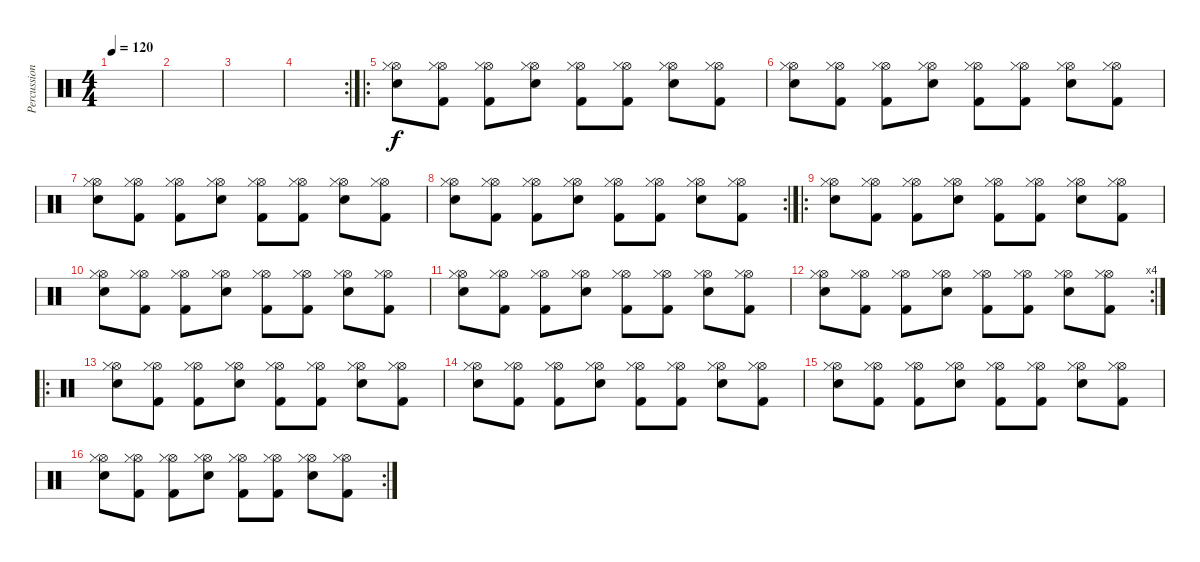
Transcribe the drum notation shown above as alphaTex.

\track ("Percussions" "Percussion") {instrument percussion}
\staff {score}
\articulation defaults
\ts (4 4)
\tempo 120
\clef neutral
\ks c
|
|
|
\rc 2
|
\ro
("Electric Snare (hit)" "Hi-Hat (open)" "Hi-Hat (closed)").8 ("Kick (hit) 2" "Hi-Hat (open)" "Hi-Hat (closed)").8 ("Kick (hit) 2" "Hi-Hat (open)" "Hi-Hat (closed)").8 ("Electric Snare (hit)" "Hi-Hat (open)" "Hi-Hat (closed)").8 ("Kick (hit) 2" "Hi-Hat (open)" "Hi-Hat (closed)").8 ("Kick (hit) 2" "Hi-Hat (open)" "Hi-Hat (closed)").8 ("Electric Snare (hit)" "Hi-Hat (open)" "Hi-Hat (closed)").8 ("Kick (hit) 2" "Hi-Hat (open)" "Hi-Hat (closed)").8 |
("Electric Snare (hit)" "Hi-Hat (open)" "Hi-Hat (closed)").8 ("Kick (hit) 2" "Hi-Hat (open)" "Hi-Hat (closed)").8 ("Kick (hit) 2" "Hi-Hat (open)" "Hi-Hat (closed)").8 ("Electric Snare (hit)" "Hi-Hat (open)" "Hi-Hat (closed)").8 ("Kick (hit) 2" "Hi-Hat (open)" "Hi-Hat (closed)").8 ("Kick (hit) 2" "Hi-Hat (open)" "Hi-Hat (closed)").8 ("Electric Snare (hit)" "Hi-Hat (open)" "Hi-Hat (closed)").8 ("Kick (hit) 2" "Hi-Hat (open)" "Hi-Hat (closed)").8 |
("Electric Snare (hit)" "Hi-Hat (open)" "Hi-Hat (closed)").8 ("Kick (hit) 2" "Hi-Hat (open)" "Hi-Hat (closed)").8 ("Kick (hit) 2" "Hi-Hat (open)" "Hi-Hat (closed)").8 ("Electric Snare (hit)" "Hi-Hat (open)" "Hi-Hat (closed)").8 ("Kick (hit) 2" "Hi-Hat (open)" "Hi-Hat (closed)").8 ("Kick (hit) 2" "Hi-Hat (open)" "Hi-Hat (closed)").8 ("Electric Snare (hit)" "Hi-Hat (open)" "Hi-Hat (closed)").8 ("Kick (hit) 2" "Hi-Hat (open)" "Hi-Hat (closed)").8 |
\rc 2
("Electric Snare (hit)" "Hi-Hat (open)" "Hi-Hat (closed)").8 ("Kick (hit) 2" "Hi-Hat (open)" "Hi-Hat (closed)").8 ("Kick (hit) 2" "Hi-Hat (open)" "Hi-Hat (closed)").8 ("Electric Snare (hit)" "Hi-Hat (open)" "Hi-Hat (closed)").8 ("Kick (hit) 2" "Hi-Hat (open)" "Hi-Hat (closed)").8 ("Kick (hit) 2" "Hi-Hat (open)" "Hi-Hat (closed)").8 ("Electric Snare (hit)" "Hi-Hat (open)" "Hi-Hat (closed)").8 ("Kick (hit) 2" "Hi-Hat (open)" "Hi-Hat (closed)").8 |
\ro
("Electric Snare (hit)" "Hi-Hat (open)" "Hi-Hat (closed)").8 ("Kick (hit) 2" "Hi-Hat (open)" "Hi-Hat (closed)").8 ("Kick (hit) 2" "Hi-Hat (open)" "Hi-Hat (closed)").8 ("Electric Snare (hit)" "Hi-Hat (open)" "Hi-Hat (closed)").8 ("Kick (hit) 2" "Hi-Hat (open)" "Hi-Hat (closed)").8 ("Kick (hit) 2" "Hi-Hat (open)" "Hi-Hat (closed)").8 ("Electric Snare (hit)" "Hi-Hat (open)" "Hi-Hat (closed)").8 ("Kick (hit) 2" "Hi-Hat (open)" "Hi-Hat (closed)").8 |
("Electric Snare (hit)" "Hi-Hat (open)" "Hi-Hat (closed)").8 ("Kick (hit) 2" "Hi-Hat (open)" "Hi-Hat (closed)").8 ("Kick (hit) 2" "Hi-Hat (open)" "Hi-Hat (closed)").8 ("Electric Snare (hit)" "Hi-Hat (open)" "Hi-Hat (closed)").8 ("Kick (hit) 2" "Hi-Hat (open)" "Hi-Hat (closed)").8 ("Kick (hit) 2" "Hi-Hat (open)" "Hi-Hat (closed)").8 ("Electric Snare (hit)" "Hi-Hat (open)" "Hi-Hat (closed)").8 ("Kick (hit) 2" "Hi-Hat (open)" "Hi-Hat (closed)").8 |
("Electric Snare (hit)" "Hi-Hat (open)" "Hi-Hat (closed)").8 ("Kick (hit) 2" "Hi-Hat (open)" "Hi-Hat (closed)").8 ("Kick (hit) 2" "Hi-Hat (open)" "Hi-Hat (closed)").8 ("Electric Snare (hit)" "Hi-Hat (open)" "Hi-Hat (closed)").8 ("Kick (hit) 2" "Hi-Hat (open)" "Hi-Hat (closed)").8 ("Kick (hit) 2" "Hi-Hat (open)" "Hi-Hat (closed)").8 ("Electric Snare (hit)" "Hi-Hat (open)" "Hi-Hat (closed)").8 ("Kick (hit) 2" "Hi-Hat (open)" "Hi-Hat (closed)").8 |
\rc 4
("Electric Snare (hit)" "Hi-Hat (open)" "Hi-Hat (closed)").8 ("Kick (hit) 2" "Hi-Hat (open)" "Hi-Hat (closed)").8 ("Kick (hit) 2" "Hi-Hat (open)" "Hi-Hat (closed)").8 ("Electric Snare (hit)" "Hi-Hat (open)" "Hi-Hat (closed)").8 ("Kick (hit) 2" "Hi-Hat (open)" "Hi-Hat (closed)").8 ("Kick (hit) 2" "Hi-Hat (open)" "Hi-Hat (closed)").8 ("Electric Snare (hit)" "Hi-Hat (open)" "Hi-Hat (closed)").8 ("Kick (hit) 2" "Hi-Hat (open)" "Hi-Hat (closed)").8 |
\ro
("Electric Snare (hit)" "Hi-Hat (open)" "Hi-Hat (closed)").8 ("Kick (hit) 2" "Hi-Hat (open)" "Hi-Hat (closed)").8 ("Kick (hit) 2" "Hi-Hat (open)" "Hi-Hat (closed)").8 ("Electric Snare (hit)" "Hi-Hat (open)" "Hi-Hat (closed)").8 ("Kick (hit) 2" "Hi-Hat (open)" "Hi-Hat (closed)").8 ("Kick (hit) 2" "Hi-Hat (open)" "Hi-Hat (closed)").8 ("Electric Snare (hit)" "Hi-Hat (open)" "Hi-Hat (closed)").8 ("Kick (hit) 2" "Hi-Hat (open)" "Hi-Hat (closed)").8 |
("Electric Snare (hit)" "Hi-Hat (open)" "Hi-Hat (closed)").8 ("Kick (hit) 2" "Hi-Hat (open)" "Hi-Hat (closed)").8 ("Kick (hit) 2" "Hi-Hat (open)" "Hi-Hat (closed)").8 ("Electric Snare (hit)" "Hi-Hat (open)" "Hi-Hat (closed)").8 ("Kick (hit) 2" "Hi-Hat (open)" "Hi-Hat (closed)").8 ("Kick (hit) 2" "Hi-Hat (open)" "Hi-Hat (closed)").8 ("Electric Snare (hit)" "Hi-Hat (open)" "Hi-Hat (closed)").8 ("Kick (hit) 2" "Hi-Hat (open)" "Hi-Hat (closed)").8 |
("Electric Snare (hit)" "Hi-Hat (open)" "Hi-Hat (closed)").8 ("Kick (hit) 2" "Hi-Hat (open)" "Hi-Hat (closed)").8 ("Kick (hit) 2" "Hi-Hat (open)" "Hi-Hat (closed)").8 ("Electric Snare (hit)" "Hi-Hat (open)" "Hi-Hat (closed)").8 ("Kick (hit) 2" "Hi-Hat (open)" "Hi-Hat (closed)").8 ("Kick (hit) 2" "Hi-Hat (open)" "Hi-Hat (closed)").8 ("Electric Snare (hit)" "Hi-Hat (open)" "Hi-Hat (closed)").8 ("Kick (hit) 2" "Hi-Hat (open)" "Hi-Hat (closed)").8 |
\rc 2
("Electric Snare (hit)" "Hi-Hat (open)" "Hi-Hat (closed)").8 ("Kick (hit) 2" "Hi-Hat (open)" "Hi-Hat (closed)").8 ("Kick (hit) 2" "Hi-Hat (open)" "Hi-Hat (closed)").8 ("Electric Snare (hit)" "Hi-Hat (open)" "Hi-Hat (closed)").8 ("Kick (hit) 2" "Hi-Hat (open)" "Hi-Hat (closed)").8 ("Kick (hit) 2" "Hi-Hat (open)" "Hi-Hat (closed)").8 ("Electric Snare (hit)" "Hi-Hat (open)" "Hi-Hat (closed)").8 ("Kick (hit) 2" "Hi-Hat (open)" "Hi-Hat (closed)").8
